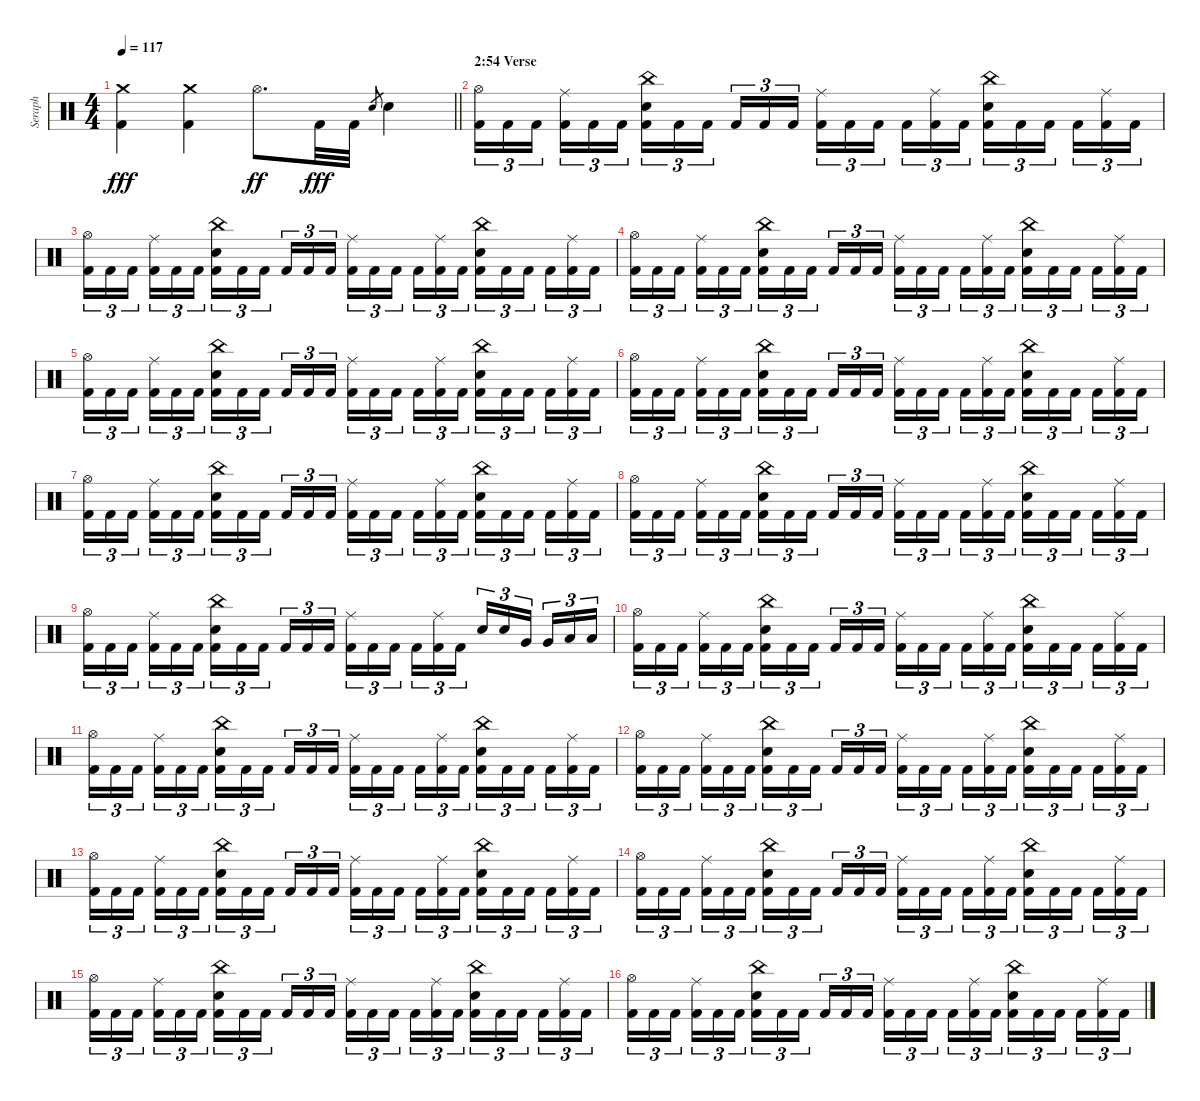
\track ("Seraph" "Seraph") {instrument percussion}
\staff {score}
\articulation defaults
\ts (4 4)
\tempo 117
\clef neutral
\barLineRight lightlight
\ks c
("Kick (hit) 2" "Crash medium (hit)").4{dy fff} ("Kick (hit) 2" "Crash medium (hit)").4 "Hi-Hat (open)".8{d dy ff} "Kick (hit) 2".32{dy fff} "Kick (hit) 2".32 "Electric Snare (hit)".8{gr} "Electric Snare (hit)".4 |
\section ("" "2:54 Verse")
("Hi-Hat (open)" "Kick (hit) 2").16{tu (3 2)} "Kick (hit) 2".16{tu (3 2)} "Kick (hit) 2".16{tu (3 2) beam splitsecondary} ("Ride (middle)" "Kick (hit) 2").16{tu (3 2)} "Kick (hit) 2".16{tu (3 2)} "Kick (hit) 2".16{tu (3 2)} ("China (hit)" "Electric Snare (hit)" "Kick (hit) 2").16{tu (3 2)} "Kick (hit) 2".16{tu (3 2)} "Kick (hit) 2".16{tu (3 2) beam splitsecondary} "Kick (hit) 2".16{tu (3 2)} "Kick (hit) 2".16{tu (3 2)} "Kick (hit) 2".16{tu (3 2)} ("Ride (middle)" "Kick (hit) 2").16{tu (3 2)} "Kick (hit) 2".16{tu (3 2)} "Kick (hit) 2".16{tu (3 2) beam splitsecondary} "Kick (hit) 2".16{tu (3 2)} ("Ride (middle)" "Kick (hit) 2").16{tu (3 2)} "Kick (hit) 2".16{tu (3 2)} ("China (hit)" "Electric Snare (hit)" "Kick (hit) 2").16{tu (3 2)} "Kick (hit) 2".16{tu (3 2)} "Kick (hit) 2".16{tu (3 2) beam splitsecondary} "Kick (hit) 2".16{tu (3 2)} ("Ride (middle)" "Kick (hit) 2").16{tu (3 2)} "Kick (hit) 2".16{tu (3 2)} |
("Hi-Hat (open)" "Kick (hit) 2").16{tu (3 2)} "Kick (hit) 2".16{tu (3 2)} "Kick (hit) 2".16{tu (3 2) beam splitsecondary} ("Ride (middle)" "Kick (hit) 2").16{tu (3 2)} "Kick (hit) 2".16{tu (3 2)} "Kick (hit) 2".16{tu (3 2)} ("China (hit)" "Electric Snare (hit)" "Kick (hit) 2").16{tu (3 2)} "Kick (hit) 2".16{tu (3 2)} "Kick (hit) 2".16{tu (3 2) beam splitsecondary} "Kick (hit) 2".16{tu (3 2)} "Kick (hit) 2".16{tu (3 2)} "Kick (hit) 2".16{tu (3 2)} ("Ride (middle)" "Kick (hit) 2").16{tu (3 2)} "Kick (hit) 2".16{tu (3 2)} "Kick (hit) 2".16{tu (3 2) beam splitsecondary} "Kick (hit) 2".16{tu (3 2)} ("Ride (middle)" "Kick (hit) 2").16{tu (3 2)} "Kick (hit) 2".16{tu (3 2)} ("China (hit)" "Electric Snare (hit)" "Kick (hit) 2").16{tu (3 2)} "Kick (hit) 2".16{tu (3 2)} "Kick (hit) 2".16{tu (3 2) beam splitsecondary} "Kick (hit) 2".16{tu (3 2)} ("Ride (middle)" "Kick (hit) 2").16{tu (3 2)} "Kick (hit) 2".16{tu (3 2)} |
("Hi-Hat (open)" "Kick (hit) 2").16{tu (3 2)} "Kick (hit) 2".16{tu (3 2)} "Kick (hit) 2".16{tu (3 2) beam splitsecondary} ("Ride (middle)" "Kick (hit) 2").16{tu (3 2)} "Kick (hit) 2".16{tu (3 2)} "Kick (hit) 2".16{tu (3 2)} ("China (hit)" "Electric Snare (hit)" "Kick (hit) 2").16{tu (3 2)} "Kick (hit) 2".16{tu (3 2)} "Kick (hit) 2".16{tu (3 2) beam splitsecondary} "Kick (hit) 2".16{tu (3 2)} "Kick (hit) 2".16{tu (3 2)} "Kick (hit) 2".16{tu (3 2)} ("Ride (middle)" "Kick (hit) 2").16{tu (3 2)} "Kick (hit) 2".16{tu (3 2)} "Kick (hit) 2".16{tu (3 2) beam splitsecondary} "Kick (hit) 2".16{tu (3 2)} ("Ride (middle)" "Kick (hit) 2").16{tu (3 2)} "Kick (hit) 2".16{tu (3 2)} ("China (hit)" "Electric Snare (hit)" "Kick (hit) 2").16{tu (3 2)} "Kick (hit) 2".16{tu (3 2)} "Kick (hit) 2".16{tu (3 2) beam splitsecondary} "Kick (hit) 2".16{tu (3 2)} ("Ride (middle)" "Kick (hit) 2").16{tu (3 2)} "Kick (hit) 2".16{tu (3 2)} |
("Hi-Hat (open)" "Kick (hit) 2").16{tu (3 2)} "Kick (hit) 2".16{tu (3 2)} "Kick (hit) 2".16{tu (3 2) beam splitsecondary} ("Ride (middle)" "Kick (hit) 2").16{tu (3 2)} "Kick (hit) 2".16{tu (3 2)} "Kick (hit) 2".16{tu (3 2)} ("China (hit)" "Electric Snare (hit)" "Kick (hit) 2").16{tu (3 2)} "Kick (hit) 2".16{tu (3 2)} "Kick (hit) 2".16{tu (3 2) beam splitsecondary} "Kick (hit) 2".16{tu (3 2)} "Kick (hit) 2".16{tu (3 2)} "Kick (hit) 2".16{tu (3 2)} ("Ride (middle)" "Kick (hit) 2").16{tu (3 2)} "Kick (hit) 2".16{tu (3 2)} "Kick (hit) 2".16{tu (3 2) beam splitsecondary} "Kick (hit) 2".16{tu (3 2)} ("Ride (middle)" "Kick (hit) 2").16{tu (3 2)} "Kick (hit) 2".16{tu (3 2)} ("China (hit)" "Electric Snare (hit)" "Kick (hit) 2").16{tu (3 2)} "Kick (hit) 2".16{tu (3 2)} "Kick (hit) 2".16{tu (3 2) beam splitsecondary} "Kick (hit) 2".16{tu (3 2)} ("Ride (middle)" "Kick (hit) 2").16{tu (3 2)} "Kick (hit) 2".16{tu (3 2)} |
("Hi-Hat (open)" "Kick (hit) 2").16{tu (3 2)} "Kick (hit) 2".16{tu (3 2)} "Kick (hit) 2".16{tu (3 2) beam splitsecondary} ("Ride (middle)" "Kick (hit) 2").16{tu (3 2)} "Kick (hit) 2".16{tu (3 2)} "Kick (hit) 2".16{tu (3 2)} ("China (hit)" "Electric Snare (hit)" "Kick (hit) 2").16{tu (3 2)} "Kick (hit) 2".16{tu (3 2)} "Kick (hit) 2".16{tu (3 2) beam splitsecondary} "Kick (hit) 2".16{tu (3 2)} "Kick (hit) 2".16{tu (3 2)} "Kick (hit) 2".16{tu (3 2)} ("Ride (middle)" "Kick (hit) 2").16{tu (3 2)} "Kick (hit) 2".16{tu (3 2)} "Kick (hit) 2".16{tu (3 2) beam splitsecondary} "Kick (hit) 2".16{tu (3 2)} ("Ride (middle)" "Kick (hit) 2").16{tu (3 2)} "Kick (hit) 2".16{tu (3 2)} ("China (hit)" "Electric Snare (hit)" "Kick (hit) 2").16{tu (3 2)} "Kick (hit) 2".16{tu (3 2)} "Kick (hit) 2".16{tu (3 2) beam splitsecondary} "Kick (hit) 2".16{tu (3 2)} ("Ride (middle)" "Kick (hit) 2").16{tu (3 2)} "Kick (hit) 2".16{tu (3 2)} |
("Hi-Hat (open)" "Kick (hit) 2").16{tu (3 2)} "Kick (hit) 2".16{tu (3 2)} "Kick (hit) 2".16{tu (3 2) beam splitsecondary} ("Ride (middle)" "Kick (hit) 2").16{tu (3 2)} "Kick (hit) 2".16{tu (3 2)} "Kick (hit) 2".16{tu (3 2)} ("China (hit)" "Electric Snare (hit)" "Kick (hit) 2").16{tu (3 2)} "Kick (hit) 2".16{tu (3 2)} "Kick (hit) 2".16{tu (3 2) beam splitsecondary} "Kick (hit) 2".16{tu (3 2)} "Kick (hit) 2".16{tu (3 2)} "Kick (hit) 2".16{tu (3 2)} ("Ride (middle)" "Kick (hit) 2").16{tu (3 2)} "Kick (hit) 2".16{tu (3 2)} "Kick (hit) 2".16{tu (3 2) beam splitsecondary} "Kick (hit) 2".16{tu (3 2)} ("Ride (middle)" "Kick (hit) 2").16{tu (3 2)} "Kick (hit) 2".16{tu (3 2)} ("China (hit)" "Electric Snare (hit)" "Kick (hit) 2").16{tu (3 2)} "Kick (hit) 2".16{tu (3 2)} "Kick (hit) 2".16{tu (3 2) beam splitsecondary} "Kick (hit) 2".16{tu (3 2)} ("Ride (middle)" "Kick (hit) 2").16{tu (3 2)} "Kick (hit) 2".16{tu (3 2)} |
("Hi-Hat (open)" "Kick (hit) 2").16{tu (3 2)} "Kick (hit) 2".16{tu (3 2)} "Kick (hit) 2".16{tu (3 2) beam splitsecondary} ("Ride (middle)" "Kick (hit) 2").16{tu (3 2)} "Kick (hit) 2".16{tu (3 2)} "Kick (hit) 2".16{tu (3 2)} ("China (hit)" "Electric Snare (hit)" "Kick (hit) 2").16{tu (3 2)} "Kick (hit) 2".16{tu (3 2)} "Kick (hit) 2".16{tu (3 2) beam splitsecondary} "Kick (hit) 2".16{tu (3 2)} "Kick (hit) 2".16{tu (3 2)} "Kick (hit) 2".16{tu (3 2)} ("Ride (middle)" "Kick (hit) 2").16{tu (3 2)} "Kick (hit) 2".16{tu (3 2)} "Kick (hit) 2".16{tu (3 2) beam splitsecondary} "Kick (hit) 2".16{tu (3 2)} ("Ride (middle)" "Kick (hit) 2").16{tu (3 2)} "Kick (hit) 2".16{tu (3 2)} ("China (hit)" "Electric Snare (hit)" "Kick (hit) 2").16{tu (3 2)} "Kick (hit) 2".16{tu (3 2)} "Kick (hit) 2".16{tu (3 2) beam splitsecondary} "Kick (hit) 2".16{tu (3 2)} ("Ride (middle)" "Kick (hit) 2").16{tu (3 2)} "Kick (hit) 2".16{tu (3 2)} |
("Hi-Hat (open)" "Kick (hit) 2").16{tu (3 2)} "Kick (hit) 2".16{tu (3 2)} "Kick (hit) 2".16{tu (3 2) beam splitsecondary} ("Ride (middle)" "Kick (hit) 2").16{tu (3 2)} "Kick (hit) 2".16{tu (3 2)} "Kick (hit) 2".16{tu (3 2)} ("China (hit)" "Electric Snare (hit)" "Kick (hit) 2").16{tu (3 2)} "Kick (hit) 2".16{tu (3 2)} "Kick (hit) 2".16{tu (3 2) beam splitsecondary} "Kick (hit) 2".16{tu (3 2)} "Kick (hit) 2".16{tu (3 2)} "Kick (hit) 2".16{tu (3 2)} ("Ride (middle)" "Kick (hit) 2").16{tu (3 2)} "Kick (hit) 2".16{tu (3 2)} "Kick (hit) 2".16{tu (3 2) beam splitsecondary} "Kick (hit) 2".16{tu (3 2)} ("Ride (middle)" "Kick (hit) 2").16{tu (3 2)} "Kick (hit) 2".16{tu (3 2)} "Electric Snare (hit)".16{tu (3 2)} "Electric Snare (hit)".16{tu (3 2)} "Very Low Tom (hit)".16{tu (3 2) beam splitsecondary} "Very Low Tom (hit)".16{tu (3 2)} "Low Floor Tom (hit)".16{tu (3 2)} "Low Floor Tom (hit)".16{tu (3 2)} |
("Hi-Hat (open)" "Kick (hit) 2").16{tu (3 2)} "Kick (hit) 2".16{tu (3 2)} "Kick (hit) 2".16{tu (3 2) beam splitsecondary} ("Ride (middle)" "Kick (hit) 2").16{tu (3 2)} "Kick (hit) 2".16{tu (3 2)} "Kick (hit) 2".16{tu (3 2)} ("China (hit)" "Electric Snare (hit)" "Kick (hit) 2").16{tu (3 2)} "Kick (hit) 2".16{tu (3 2)} "Kick (hit) 2".16{tu (3 2) beam splitsecondary} "Kick (hit) 2".16{tu (3 2)} "Kick (hit) 2".16{tu (3 2)} "Kick (hit) 2".16{tu (3 2)} ("Ride (middle)" "Kick (hit) 2").16{tu (3 2)} "Kick (hit) 2".16{tu (3 2)} "Kick (hit) 2".16{tu (3 2) beam splitsecondary} "Kick (hit) 2".16{tu (3 2)} ("Ride (middle)" "Kick (hit) 2").16{tu (3 2)} "Kick (hit) 2".16{tu (3 2)} ("China (hit)" "Electric Snare (hit)" "Kick (hit) 2").16{tu (3 2)} "Kick (hit) 2".16{tu (3 2)} "Kick (hit) 2".16{tu (3 2) beam splitsecondary} "Kick (hit) 2".16{tu (3 2)} ("Ride (middle)" "Kick (hit) 2").16{tu (3 2)} "Kick (hit) 2".16{tu (3 2)} |
("Hi-Hat (open)" "Kick (hit) 2").16{tu (3 2)} "Kick (hit) 2".16{tu (3 2)} "Kick (hit) 2".16{tu (3 2) beam splitsecondary} ("Ride (middle)" "Kick (hit) 2").16{tu (3 2)} "Kick (hit) 2".16{tu (3 2)} "Kick (hit) 2".16{tu (3 2)} ("China (hit)" "Electric Snare (hit)" "Kick (hit) 2").16{tu (3 2)} "Kick (hit) 2".16{tu (3 2)} "Kick (hit) 2".16{tu (3 2) beam splitsecondary} "Kick (hit) 2".16{tu (3 2)} "Kick (hit) 2".16{tu (3 2)} "Kick (hit) 2".16{tu (3 2)} ("Ride (middle)" "Kick (hit) 2").16{tu (3 2)} "Kick (hit) 2".16{tu (3 2)} "Kick (hit) 2".16{tu (3 2) beam splitsecondary} "Kick (hit) 2".16{tu (3 2)} ("Ride (middle)" "Kick (hit) 2").16{tu (3 2)} "Kick (hit) 2".16{tu (3 2)} ("China (hit)" "Electric Snare (hit)" "Kick (hit) 2").16{tu (3 2)} "Kick (hit) 2".16{tu (3 2)} "Kick (hit) 2".16{tu (3 2) beam splitsecondary} "Kick (hit) 2".16{tu (3 2)} ("Ride (middle)" "Kick (hit) 2").16{tu (3 2)} "Kick (hit) 2".16{tu (3 2)} |
("Hi-Hat (open)" "Kick (hit) 2").16{tu (3 2)} "Kick (hit) 2".16{tu (3 2)} "Kick (hit) 2".16{tu (3 2) beam splitsecondary} ("Ride (middle)" "Kick (hit) 2").16{tu (3 2)} "Kick (hit) 2".16{tu (3 2)} "Kick (hit) 2".16{tu (3 2)} ("China (hit)" "Electric Snare (hit)" "Kick (hit) 2").16{tu (3 2)} "Kick (hit) 2".16{tu (3 2)} "Kick (hit) 2".16{tu (3 2) beam splitsecondary} "Kick (hit) 2".16{tu (3 2)} "Kick (hit) 2".16{tu (3 2)} "Kick (hit) 2".16{tu (3 2)} ("Ride (middle)" "Kick (hit) 2").16{tu (3 2)} "Kick (hit) 2".16{tu (3 2)} "Kick (hit) 2".16{tu (3 2) beam splitsecondary} "Kick (hit) 2".16{tu (3 2)} ("Ride (middle)" "Kick (hit) 2").16{tu (3 2)} "Kick (hit) 2".16{tu (3 2)} ("China (hit)" "Electric Snare (hit)" "Kick (hit) 2").16{tu (3 2)} "Kick (hit) 2".16{tu (3 2)} "Kick (hit) 2".16{tu (3 2) beam splitsecondary} "Kick (hit) 2".16{tu (3 2)} ("Ride (middle)" "Kick (hit) 2").16{tu (3 2)} "Kick (hit) 2".16{tu (3 2)} |
("Hi-Hat (open)" "Kick (hit) 2").16{tu (3 2)} "Kick (hit) 2".16{tu (3 2)} "Kick (hit) 2".16{tu (3 2) beam splitsecondary} ("Ride (middle)" "Kick (hit) 2").16{tu (3 2)} "Kick (hit) 2".16{tu (3 2)} "Kick (hit) 2".16{tu (3 2)} ("China (hit)" "Electric Snare (hit)" "Kick (hit) 2").16{tu (3 2)} "Kick (hit) 2".16{tu (3 2)} "Kick (hit) 2".16{tu (3 2) beam splitsecondary} "Kick (hit) 2".16{tu (3 2)} "Kick (hit) 2".16{tu (3 2)} "Kick (hit) 2".16{tu (3 2)} ("Ride (middle)" "Kick (hit) 2").16{tu (3 2)} "Kick (hit) 2".16{tu (3 2)} "Kick (hit) 2".16{tu (3 2) beam splitsecondary} "Kick (hit) 2".16{tu (3 2)} ("Ride (middle)" "Kick (hit) 2").16{tu (3 2)} "Kick (hit) 2".16{tu (3 2)} ("China (hit)" "Electric Snare (hit)" "Kick (hit) 2").16{tu (3 2)} "Kick (hit) 2".16{tu (3 2)} "Kick (hit) 2".16{tu (3 2) beam splitsecondary} "Kick (hit) 2".16{tu (3 2)} ("Ride (middle)" "Kick (hit) 2").16{tu (3 2)} "Kick (hit) 2".16{tu (3 2)} |
("Hi-Hat (open)" "Kick (hit) 2").16{tu (3 2)} "Kick (hit) 2".16{tu (3 2)} "Kick (hit) 2".16{tu (3 2) beam splitsecondary} ("Ride (middle)" "Kick (hit) 2").16{tu (3 2)} "Kick (hit) 2".16{tu (3 2)} "Kick (hit) 2".16{tu (3 2)} ("China (hit)" "Electric Snare (hit)" "Kick (hit) 2").16{tu (3 2)} "Kick (hit) 2".16{tu (3 2)} "Kick (hit) 2".16{tu (3 2) beam splitsecondary} "Kick (hit) 2".16{tu (3 2)} "Kick (hit) 2".16{tu (3 2)} "Kick (hit) 2".16{tu (3 2)} ("Ride (middle)" "Kick (hit) 2").16{tu (3 2)} "Kick (hit) 2".16{tu (3 2)} "Kick (hit) 2".16{tu (3 2) beam splitsecondary} "Kick (hit) 2".16{tu (3 2)} ("Ride (middle)" "Kick (hit) 2").16{tu (3 2)} "Kick (hit) 2".16{tu (3 2)} ("China (hit)" "Electric Snare (hit)" "Kick (hit) 2").16{tu (3 2)} "Kick (hit) 2".16{tu (3 2)} "Kick (hit) 2".16{tu (3 2) beam splitsecondary} "Kick (hit) 2".16{tu (3 2)} ("Ride (middle)" "Kick (hit) 2").16{tu (3 2)} "Kick (hit) 2".16{tu (3 2)} |
("Hi-Hat (open)" "Kick (hit) 2").16{tu (3 2)} "Kick (hit) 2".16{tu (3 2)} "Kick (hit) 2".16{tu (3 2) beam splitsecondary} ("Ride (middle)" "Kick (hit) 2").16{tu (3 2)} "Kick (hit) 2".16{tu (3 2)} "Kick (hit) 2".16{tu (3 2)} ("China (hit)" "Electric Snare (hit)" "Kick (hit) 2").16{tu (3 2)} "Kick (hit) 2".16{tu (3 2)} "Kick (hit) 2".16{tu (3 2) beam splitsecondary} "Kick (hit) 2".16{tu (3 2)} "Kick (hit) 2".16{tu (3 2)} "Kick (hit) 2".16{tu (3 2)} ("Ride (middle)" "Kick (hit) 2").16{tu (3 2)} "Kick (hit) 2".16{tu (3 2)} "Kick (hit) 2".16{tu (3 2) beam splitsecondary} "Kick (hit) 2".16{tu (3 2)} ("Ride (middle)" "Kick (hit) 2").16{tu (3 2)} "Kick (hit) 2".16{tu (3 2)} ("China (hit)" "Electric Snare (hit)" "Kick (hit) 2").16{tu (3 2)} "Kick (hit) 2".16{tu (3 2)} "Kick (hit) 2".16{tu (3 2) beam splitsecondary} "Kick (hit) 2".16{tu (3 2)} ("Ride (middle)" "Kick (hit) 2").16{tu (3 2)} "Kick (hit) 2".16{tu (3 2)} |
("Hi-Hat (open)" "Kick (hit) 2").16{tu (3 2)} "Kick (hit) 2".16{tu (3 2)} "Kick (hit) 2".16{tu (3 2) beam splitsecondary} ("Ride (middle)" "Kick (hit) 2").16{tu (3 2)} "Kick (hit) 2".16{tu (3 2)} "Kick (hit) 2".16{tu (3 2)} ("China (hit)" "Electric Snare (hit)" "Kick (hit) 2").16{tu (3 2)} "Kick (hit) 2".16{tu (3 2)} "Kick (hit) 2".16{tu (3 2) beam splitsecondary} "Kick (hit) 2".16{tu (3 2)} "Kick (hit) 2".16{tu (3 2)} "Kick (hit) 2".16{tu (3 2)} ("Ride (middle)" "Kick (hit) 2").16{tu (3 2)} "Kick (hit) 2".16{tu (3 2)} "Kick (hit) 2".16{tu (3 2) beam splitsecondary} "Kick (hit) 2".16{tu (3 2)} ("Ride (middle)" "Kick (hit) 2").16{tu (3 2)} "Kick (hit) 2".16{tu (3 2)} ("China (hit)" "Electric Snare (hit)" "Kick (hit) 2").16{tu (3 2)} "Kick (hit) 2".16{tu (3 2)} "Kick (hit) 2".16{tu (3 2) beam splitsecondary} "Kick (hit) 2".16{tu (3 2)} ("Ride (middle)" "Kick (hit) 2").16{tu (3 2)} "Kick (hit) 2".16{tu (3 2)}
